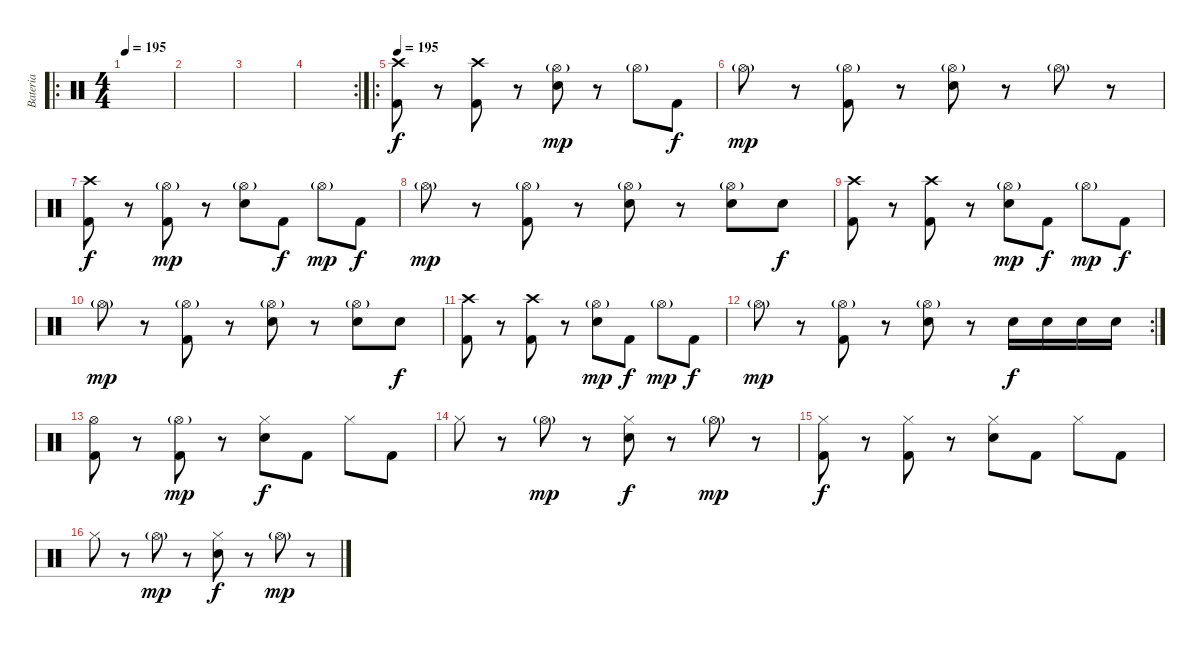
\track ("Bateria" "Bateria") {instrument percussion}
\staff {score}
\articulation defaults
\ro
\ts (4 4)
\tempo 195
\tempo 140
\tempo 195
\clef neutral
\ks c
|
|
|
\rc 2
|
\ro
\tempo 195
("Crash high (hit)" "Kick (hit) 2").8 r.8 ("Crash high (hit)" "Kick (hit) 2").8 r.8 ("Hi-Hat (open)"{g} "Snare (hit) 2").8{dy mp} r.8 "Hi-Hat (open)"{g}.8 "Kick (hit) 2".8{dy f} |
"Hi-Hat (open)"{g}.8{dy mp} r.8 ("Hi-Hat (open)"{g} "Kick (hit) 2").8 r.8 ("Hi-Hat (open)"{g} "Snare (hit) 2").8 r.8 "Hi-Hat (open)"{g}.8 r.8 |
("Crash high (hit)" "Kick (hit) 2").8{dy f} r.8 ("Hi-Hat (open)"{g} "Kick (hit) 2").8{dy mp} r.8 ("Hi-Hat (open)"{g} "Snare (hit) 2").8 "Kick (hit) 2".8{dy f} "Hi-Hat (open)"{g}.8{dy mp} "Kick (hit) 2".8{dy f} |
"Hi-Hat (open)"{g}.8{dy mp} r.8 ("Hi-Hat (open)"{g} "Kick (hit) 2").8 r.8 ("Hi-Hat (open)"{g} "Snare (hit) 2").8 r.8 ("Hi-Hat (open)"{g} "Snare (hit) 2").8 "Snare (hit) 2".8{dy f} |
("Crash high (hit)" "Kick (hit) 2").8 r.8 ("Crash high (hit)" "Kick (hit) 2").8 r.8 ("Hi-Hat (open)"{g} "Snare (hit) 2").8{dy mp} "Kick (hit) 2".8{dy f} "Hi-Hat (open)"{g}.8{dy mp} "Kick (hit) 2".8{dy f} |
"Hi-Hat (open)"{g}.8{dy mp} r.8 ("Hi-Hat (open)"{g} "Kick (hit) 2").8 r.8 ("Hi-Hat (open)"{g} "Snare (hit) 2").8 r.8 ("Hi-Hat (open)"{g} "Snare (hit) 2").8 "Snare (hit) 2".8{dy f} |
("Crash high (hit)" "Kick (hit) 2").8 r.8 ("Crash high (hit)" "Kick (hit) 2").8 r.8 ("Hi-Hat (open)"{g} "Snare (hit) 2").8{dy mp} "Kick (hit) 2".8{dy f} "Hi-Hat (open)"{g}.8{dy mp} "Kick (hit) 2".8{dy f} |
\rc 2 "Hi-Hat (open)"{g}.8{dy mp}
r.8 ("Hi-Hat (open)"{g} "Kick (hit) 2").8 r.8 ("Hi-Hat (open)"{g} "Snare (hit) 2").8 r.8 "Snare (hit) 2".16{dy f} "Snare (hit) 2".16 "Snare (hit) 2".16 "Snare (hit) 2".16 |
("Hi-Hat (open)" "Kick (hit) 2").8 r.8 ("Hi-Hat (open)"{g} "Kick (hit) 2").8{dy mp} r.8 ("Hi-Hat (closed)" "Snare (hit) 2").8{dy f} "Kick (hit) 2".8 "Hi-Hat (closed)".8 "Kick (hit) 2".8 |
"Hi-Hat (closed)".8 r.8 "Hi-Hat (open)"{g}.8{dy mp} r.8 ("Hi-Hat (closed)" "Snare (hit) 2").8{dy f} r.8 "Hi-Hat (open)"{g}.8{dy mp} r.8 |
("Hi-Hat (closed)" "Kick (hit) 2").8{dy f} r.8 ("Hi-Hat (closed)" "Kick (hit) 2").8 r.8 ("Hi-Hat (closed)" "Snare (hit) 2").8 "Kick (hit) 2".8 "Hi-Hat (closed)".8 "Kick (hit) 2".8 |
"Hi-Hat (closed)".8 r.8 "Hi-Hat (open)"{g}.8{dy mp} r.8 ("Hi-Hat (closed)" "Snare (hit) 2").8{dy f} r.8 "Hi-Hat (open)"{g}.8{dy mp} r.8
